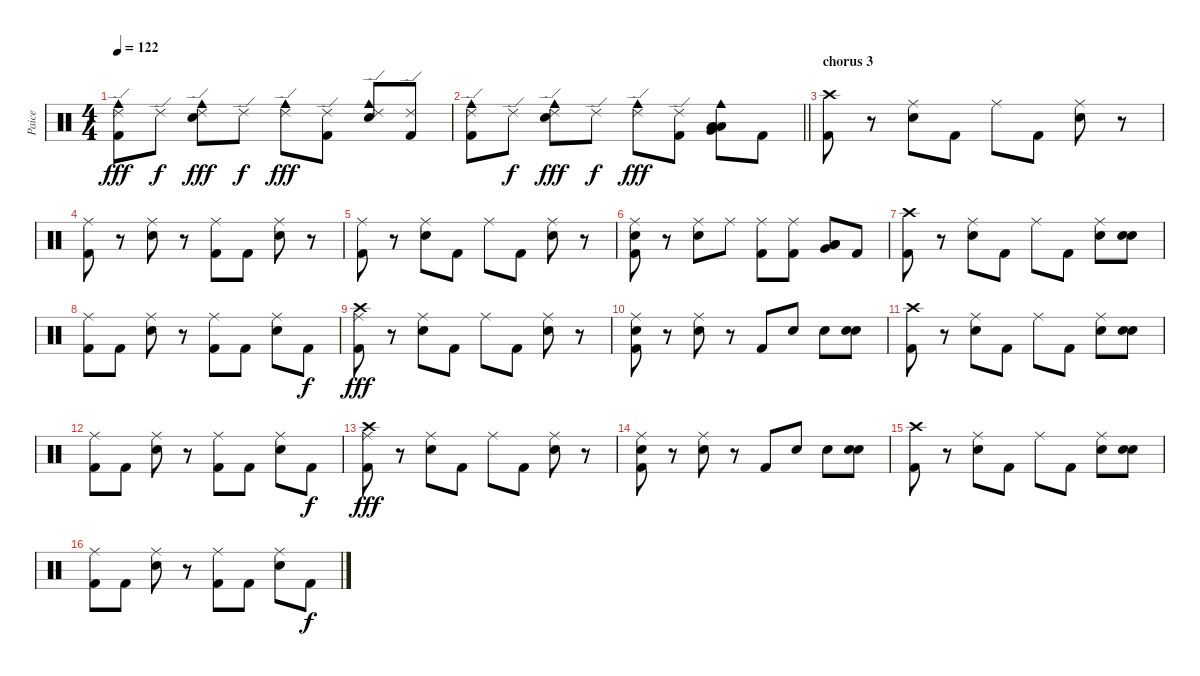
\track ("Paice" "Paice") {instrument percussion}
\staff {score}
\articulation defaults
\ts (4 4)
\tempo 122
\clef neutral
\ks c
("Ride (edge) 2" "Kick (hit) 2" "Cowbell medium (hit)").8{dy fff} "Ride (edge) 2".8{dy f} ("Electric Snare (hit)" "Ride (edge) 2" "Cowbell medium (hit)").8{dy fff} "Ride (edge) 2".8{dy f} ("Cowbell medium (hit)" "Ride (edge) 2").8{dy fff} ("Kick (hit) 2" "Ride (edge) 2").8 ("Ride (edge) 2" "Cowbell medium (hit)" "Electric Snare (hit)").8 ("Kick (hit) 2" "Ride (edge) 2").8 |
\barLineRight lightlight
("Ride (edge) 2" "Cowbell medium (hit)" "Kick (hit) 2").8 "Ride (edge) 2".8{dy f} ("Cowbell medium (hit)" "Ride (edge) 2" "Electric Snare (hit)").8{dy fff} "Ride (edge) 2".8{dy f} ("Cowbell medium (hit)" "Ride (edge) 2").8{dy fff} ("Kick (hit) 2" "Ride (edge) 2").8 ("Low Tom (hit)" "Cowbell medium (hit)" "Low Tom (hit)" "Very Low Tom (hit)").8 "Kick (hit) 2".8 |
\section ("" "chorus 3")
("Kick (hit) 2" "Crash high (hit)").8 r.8 ("Ride (middle)" "Electric Snare (hit)").8 "Kick (hit) 2".8 "Ride (middle)".8 "Kick (hit) 2".8 ("Ride (middle)" "Electric Snare (hit)").8 r.8 |
("Ride (middle)" "Kick (hit) 2").8 r.8 ("Electric Snare (hit)" "Ride (middle)").8 r.8 ("Ride (middle)" "Kick (hit) 2").8 "Kick (hit) 2".8 ("Electric Snare (hit)" "Ride (middle)").8 r.8 |
("Ride (middle)" "Kick (hit) 2").8 r.8 ("Ride (middle)" "Electric Snare (hit)").8 "Kick (hit) 2".8 "Ride (middle)".8 "Kick (hit) 2".8 ("Electric Snare (hit)" "Ride (middle)").8 r.8 |
("Electric Snare (hit)" "Kick (hit) 2" "Ride (middle)").8 r.8 ("Electric Snare (hit)" "Ride (middle)").8 "Ride (middle)".8 ("Ride (middle)" "Kick (hit) 2").8 ("Ride (middle)" "Kick (hit) 2").8 ("Low Tom (hit)" "Low Tom (hit)" "Very Low Tom (hit)").8 "Kick (hit) 2".8 |
("Crash high (hit)" "Kick (hit) 2").8 r.8 ("Electric Snare (hit)" "Ride (middle)").8 "Kick (hit) 2".8 "Ride (middle)".8 "Kick (hit) 2".8 ("Ride (middle)" "Electric Snare (hit)").8 ("Electric Snare (hit)" "Electric Snare (hit)").8 |
("Kick (hit) 2" "Ride (middle)").8 "Kick (hit) 2".8 ("Electric Snare (hit)" "Ride (middle)").8 r.8 ("Kick (hit) 2" "Ride (middle)").8 "Kick (hit) 2".8 ("Electric Snare (hit)" "Ride (middle)").8 "Kick (hit) 2".8{dy f} |
("Ride (middle)" "Crash high (hit)" "Kick (hit) 2").8{dy fff} r.8 ("Electric Snare (hit)" "Ride (middle)").8 "Kick (hit) 2".8 "Ride (middle)".8 "Kick (hit) 2".8 ("Ride (middle)" "Electric Snare (hit)").8 r.8 |
("Electric Snare (hit)" "Kick (hit) 2" "Ride (middle)").8 r.8 ("Electric Snare (hit)" "Ride (middle)").8 r.8 "Kick (hit) 2".8 "Electric Snare (hit)".8 "Electric Snare (hit)".8 ("Electric Snare (hit)" "Electric Snare (hit)").8 |
("Crash high (hit)" "Kick (hit) 2").8 r.8 ("Electric Snare (hit)" "Ride (middle)").8 "Kick (hit) 2".8 "Ride (middle)".8 "Kick (hit) 2".8 ("Ride (middle)" "Electric Snare (hit)").8 ("Electric Snare (hit)" "Electric Snare (hit)").8 |
("Kick (hit) 2" "Ride (middle)").8 "Kick (hit) 2".8 ("Electric Snare (hit)" "Ride (middle)").8 r.8 ("Kick (hit) 2" "Ride (middle)").8 "Kick (hit) 2".8 ("Electric Snare (hit)" "Ride (middle)").8 "Kick (hit) 2".8{dy f} |
("Ride (middle)" "Crash high (hit)" "Kick (hit) 2").8{dy fff} r.8 ("Electric Snare (hit)" "Ride (middle)").8 "Kick (hit) 2".8 "Ride (middle)".8 "Kick (hit) 2".8 ("Ride (middle)" "Electric Snare (hit)").8 r.8 |
("Electric Snare (hit)" "Kick (hit) 2" "Ride (middle)").8 r.8 ("Electric Snare (hit)" "Ride (middle)").8 r.8 "Kick (hit) 2".8 "Electric Snare (hit)".8 "Electric Snare (hit)".8 ("Electric Snare (hit)" "Electric Snare (hit)").8 |
("Crash high (hit)" "Kick (hit) 2").8 r.8 ("Electric Snare (hit)" "Ride (middle)").8 "Kick (hit) 2".8 "Ride (middle)".8 "Kick (hit) 2".8 ("Ride (middle)" "Electric Snare (hit)").8 ("Electric Snare (hit)" "Electric Snare (hit)").8 |
("Kick (hit) 2" "Ride (middle)").8 "Kick (hit) 2".8 ("Electric Snare (hit)" "Ride (middle)").8 r.8 ("Kick (hit) 2" "Ride (middle)").8 "Kick (hit) 2".8 ("Electric Snare (hit)" "Ride (middle)").8 "Kick (hit) 2".8{dy f}
